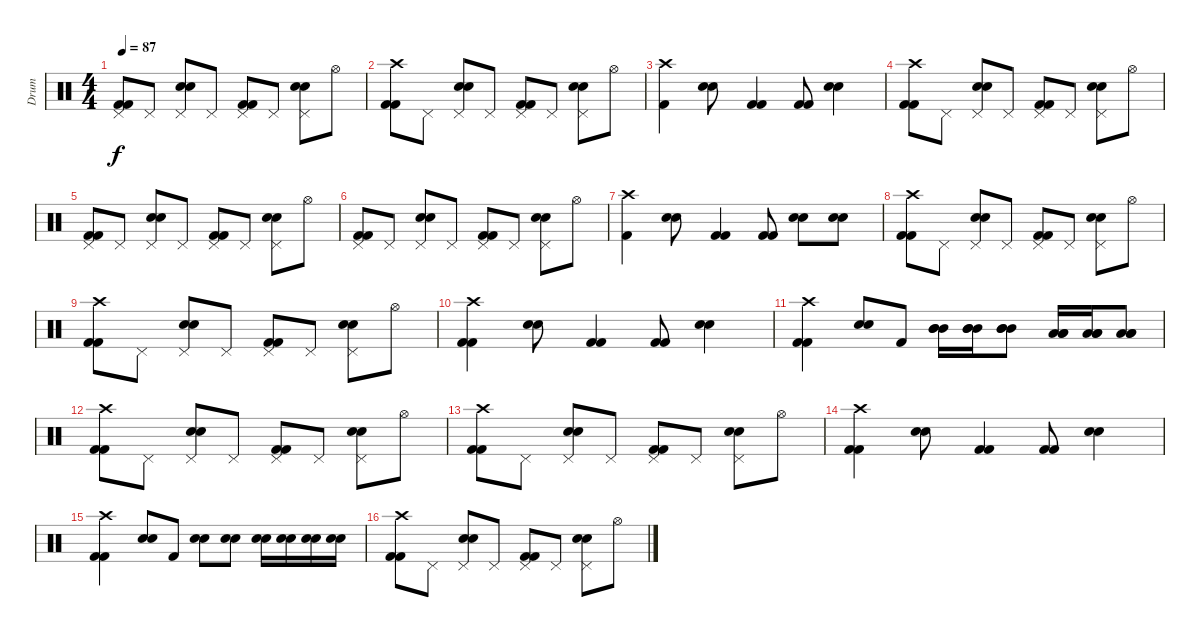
\track ("Drum" "Drum") {instrument percussion}
\staff {score}
\articulation defaults
\ts (4 4)
\tempo 87
\clef neutral
\ks c
("Pedal Hi-Hat (hit)" "Kick (hit) 2" "Kick (hit) 2").8{dy f} "Pedal Hi-Hat (hit)".8 ("Pedal Hi-Hat (hit)" "Electric Snare (hit)" "Electric Snare (hit)").8 "Pedal Hi-Hat (hit)".8 ("Pedal Hi-Hat (hit)" "Kick (hit) 2" "Kick (hit) 2").8 "Pedal Hi-Hat (hit)".8 ("Pedal Hi-Hat (hit)" "Electric Snare (hit)" "Electric Snare (hit)").8 "Hi-Hat (open)".8 |
("Crash high (hit)" "Kick (hit) 2" "Kick (hit) 2").8 "Pedal Hi-Hat (hit)".8 ("Pedal Hi-Hat (hit)" "Electric Snare (hit)" "Electric Snare (hit)").8 "Pedal Hi-Hat (hit)".8 ("Pedal Hi-Hat (hit)" "Kick (hit) 2" "Kick (hit) 2").8 "Pedal Hi-Hat (hit)".8 ("Pedal Hi-Hat (hit)" "Electric Snare (hit)" "Electric Snare (hit)").8 "Hi-Hat (open)".8 |
("Crash high (hit)" "Kick (hit) 2").4 ("Electric Snare (hit)" "Electric Snare (hit)").8 ("Kick (hit) 2" "Kick (hit) 2").4 ("Kick (hit) 2" "Kick (hit) 2").8 ("Electric Snare (hit)" "Electric Snare (hit)").4 |
("Crash high (hit)" "Kick (hit) 2" "Kick (hit) 2").8 "Pedal Hi-Hat (hit)".8 ("Pedal Hi-Hat (hit)" "Electric Snare (hit)" "Electric Snare (hit)").8 "Pedal Hi-Hat (hit)".8 ("Pedal Hi-Hat (hit)" "Kick (hit) 2" "Kick (hit) 2").8 "Pedal Hi-Hat (hit)".8 ("Pedal Hi-Hat (hit)" "Electric Snare (hit)" "Electric Snare (hit)").8 "Hi-Hat (open)".8 |
("Pedal Hi-Hat (hit)" "Kick (hit) 2" "Kick (hit) 2").8 "Pedal Hi-Hat (hit)".8 ("Pedal Hi-Hat (hit)" "Electric Snare (hit)" "Electric Snare (hit)").8 "Pedal Hi-Hat (hit)".8 ("Pedal Hi-Hat (hit)" "Kick (hit) 2" "Kick (hit) 2").8 "Pedal Hi-Hat (hit)".8 ("Pedal Hi-Hat (hit)" "Electric Snare (hit)" "Electric Snare (hit)").8 "Hi-Hat (open)".8 |
("Pedal Hi-Hat (hit)" "Kick (hit) 2" "Kick (hit) 2").8 "Pedal Hi-Hat (hit)".8 ("Pedal Hi-Hat (hit)" "Electric Snare (hit)" "Electric Snare (hit)").8 "Pedal Hi-Hat (hit)".8 ("Pedal Hi-Hat (hit)" "Kick (hit) 2" "Kick (hit) 2").8 "Pedal Hi-Hat (hit)".8 ("Pedal Hi-Hat (hit)" "Electric Snare (hit)" "Electric Snare (hit)").8 "Hi-Hat (open)".8 |
("Crash high (hit)" "Kick (hit) 2").4 ("Electric Snare (hit)" "Electric Snare (hit)").8 ("Kick (hit) 2" "Kick (hit) 2").4 ("Kick (hit) 2" "Kick (hit) 2").8 ("Electric Snare (hit)" "Electric Snare (hit)").8 ("Electric Snare (hit)" "Electric Snare (hit)").8 |
("Crash high (hit)" "Kick (hit) 2" "Kick (hit) 2").8 "Pedal Hi-Hat (hit)".8 ("Pedal Hi-Hat (hit)" "Electric Snare (hit)" "Electric Snare (hit)").8 "Pedal Hi-Hat (hit)".8 ("Pedal Hi-Hat (hit)" "Kick (hit) 2" "Kick (hit) 2").8 "Pedal Hi-Hat (hit)".8 ("Pedal Hi-Hat (hit)" "Electric Snare (hit)" "Electric Snare (hit)").8 "Hi-Hat (open)".8 |
("Crash high (hit)" "Kick (hit) 2" "Kick (hit) 2").8 "Pedal Hi-Hat (hit)".8 ("Pedal Hi-Hat (hit)" "Electric Snare (hit)" "Electric Snare (hit)").8 "Pedal Hi-Hat (hit)".8 ("Pedal Hi-Hat (hit)" "Kick (hit) 2" "Kick (hit) 2").8 "Pedal Hi-Hat (hit)".8 ("Pedal Hi-Hat (hit)" "Electric Snare (hit)" "Electric Snare (hit)").8 "Hi-Hat (open)".8 |
("Crash high (hit)" "Kick (hit) 2" "Kick (hit) 2").4 ("Electric Snare (hit)" "Electric Snare (hit)").8 ("Kick (hit) 2" "Kick (hit) 2").4 ("Kick (hit) 2" "Kick (hit) 2").8 ("Electric Snare (hit)" "Electric Snare (hit)").4 |
("Crash high (hit)" "Kick (hit) 2" "Kick (hit) 2").4 ("Electric Snare (hit)" "Electric Snare (hit)").8 "Kick (hit) 2".8 ("Mid Tom (hit)" "Mid Tom (hit)" "Mid Tom (hit)").16 ("Mid Tom (hit)" "Mid Tom (hit)" "Mid Tom (hit)").16 ("Mid Tom (hit)" "Mid Tom (hit)" "Mid Tom (hit)").8 ("Low Tom (hit)" "Low Tom (hit)" "Low Tom (hit)").16 ("Low Tom (hit)" "Low Tom (hit)" "Low Tom (hit)").16 ("Low Tom (hit)" "Low Tom (hit)" "Low Tom (hit)").8 |
("Crash high (hit)" "Kick (hit) 2" "Kick (hit) 2").8 "Pedal Hi-Hat (hit)".8 ("Pedal Hi-Hat (hit)" "Electric Snare (hit)" "Electric Snare (hit)").8 "Pedal Hi-Hat (hit)".8 ("Pedal Hi-Hat (hit)" "Kick (hit) 2" "Kick (hit) 2").8 "Pedal Hi-Hat (hit)".8 ("Pedal Hi-Hat (hit)" "Electric Snare (hit)" "Electric Snare (hit)").8 "Hi-Hat (open)".8 |
("Crash high (hit)" "Kick (hit) 2" "Kick (hit) 2").8 "Pedal Hi-Hat (hit)".8 ("Pedal Hi-Hat (hit)" "Electric Snare (hit)" "Electric Snare (hit)").8 "Pedal Hi-Hat (hit)".8 ("Pedal Hi-Hat (hit)" "Kick (hit) 2" "Kick (hit) 2").8 "Pedal Hi-Hat (hit)".8 ("Pedal Hi-Hat (hit)" "Electric Snare (hit)" "Electric Snare (hit)").8 "Hi-Hat (open)".8 |
("Crash high (hit)" "Kick (hit) 2" "Kick (hit) 2").4 ("Electric Snare (hit)" "Electric Snare (hit)").8 ("Kick (hit) 2" "Kick (hit) 2").4 ("Kick (hit) 2" "Kick (hit) 2").8 ("Electric Snare (hit)" "Electric Snare (hit)").4 |
("Crash high (hit)" "Kick (hit) 2" "Kick (hit) 2").4 ("Electric Snare (hit)" "Electric Snare (hit)").8 "Kick (hit) 2".8 ("Electric Snare (hit)" "Electric Snare (hit)").8 ("Electric Snare (hit)" "Electric Snare (hit)").8 ("Electric Snare (hit)" "Electric Snare (hit)").16 ("Electric Snare (hit)" "Electric Snare (hit)").16 ("Electric Snare (hit)" "Electric Snare (hit)").16 ("Electric Snare (hit)" "Electric Snare (hit)").16 |
("Crash high (hit)" "Kick (hit) 2" "Kick (hit) 2").8 "Pedal Hi-Hat (hit)".8 ("Pedal Hi-Hat (hit)" "Electric Snare (hit)" "Electric Snare (hit)").8 "Pedal Hi-Hat (hit)".8 ("Pedal Hi-Hat (hit)" "Kick (hit) 2" "Kick (hit) 2").8 "Pedal Hi-Hat (hit)".8 ("Pedal Hi-Hat (hit)" "Electric Snare (hit)" "Electric Snare (hit)").8 "Hi-Hat (open)".8
